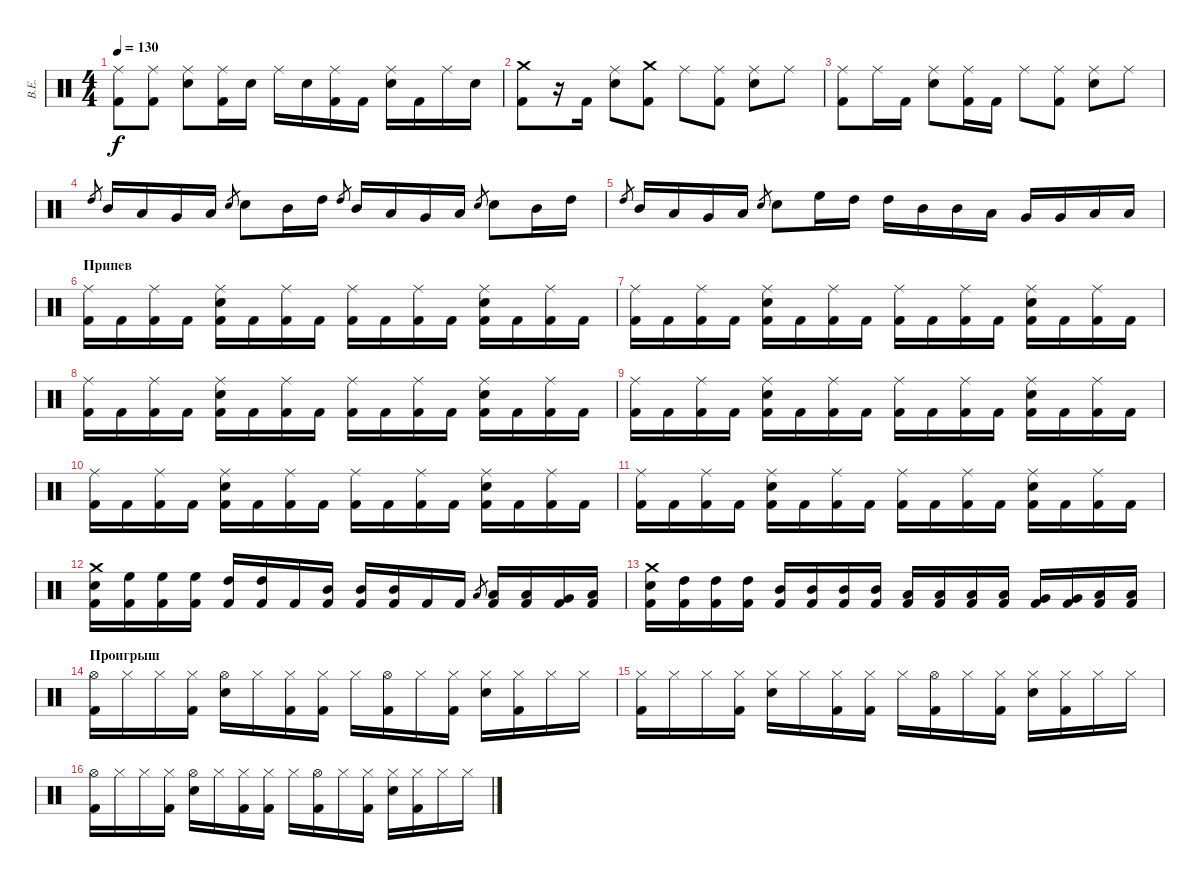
\track ("В.Е." "В.Е.") {instrument percussion}
\staff {score}
\articulation defaults
\ts (4 4)
\tempo 130
\clef neutral
\ks c
("Kick (hit) 2" "Ride (middle)").8{dy f} ("Kick (hit) 2" "Ride (middle)").8 ("Electric Snare (hit)" "Ride (middle)").8 ("Kick (hit) 2" "Ride (middle)").16 "Electric Snare (hit)".16 "Ride (middle)".16 "Electric Snare (hit)".16 ("Kick (hit) 2" "Ride (middle)").16 "Kick (hit) 2".16 ("Electric Snare (hit)" "Ride (middle)").16 "Kick (hit) 2".16 "Ride (middle)".16 "Electric Snare (hit)".16 |
("Kick (hit) 2" "Crash medium (hit)").8 r.16 "Kick (hit) 2".16 ("Electric Snare (hit)" "Ride (middle)").8 ("Kick (hit) 2" "Crash medium (hit)").8 "Ride (middle)".8 ("Kick (hit) 2" "Ride (middle)").8 ("Electric Snare (hit)" "Ride (middle)").8 "Ride (middle)".8 |
("Kick (hit) 2" "Ride (middle)").8 "Ride (middle)".16 "Kick (hit) 2".16 ("Electric Snare (hit)" "Ride (middle)").8 ("Kick (hit) 2" "Ride (middle)").16 "Kick (hit) 2".16 "Ride (middle)".8 ("Kick (hit) 2" "Ride (middle)").8 ("Electric Snare (hit)" "Ride (middle)").8 "Ride (middle)".8 |
"High Tom (hit)".8{gr} "Mid Tom (hit)".16 "Low Tom (hit)".16 "Very Low Tom (hit)".16 "Low Tom (hit)".16 "Electric Snare (hit)".8{gr} "Electric Snare (hit)".8 "Mid Tom (hit)".16 "High Tom (hit)".16 "High Tom (hit)".8{gr} "Mid Tom (hit)".16 "Low Tom (hit)".16 "Very Low Tom (hit)".16 "Low Tom (hit)".16 "Electric Snare (hit)".8{gr} "Electric Snare (hit)".8 "Mid Tom (hit)".16 "High Tom (hit)".16 |
"High Tom (hit)".8{gr} "Mid Tom (hit)".16 "Low Tom (hit)".16 "Very Low Tom (hit)".16 "Low Tom (hit)".16 "Electric Snare (hit)".8{gr} "Electric Snare (hit)".8 "High Floor Tom (hit)".16 "High Tom (hit)".16 "High Tom (hit)".16 "Mid Tom (hit)".16 "Mid Tom (hit)".16 "Low Tom (hit)".16 "Very Low Tom (hit)".16 "Very Low Tom (hit)".16 "Low Floor Tom (hit)".16 "Low Floor Tom (hit)".16 |
\section ("" "Припев")
("Ride (middle)" "Kick (hit) 2").16 "Kick (hit) 2".16 ("Ride (middle)" "Kick (hit) 2").16 "Kick (hit) 2".16 ("Ride (middle)" "Kick (hit) 2" "Electric Snare (hit)").16 "Kick (hit) 2".16 ("Ride (middle)" "Kick (hit) 2").16 "Kick (hit) 2".16 ("Ride (middle)" "Kick (hit) 2").16 "Kick (hit) 2".16 ("Ride (middle)" "Kick (hit) 2").16 "Kick (hit) 2".16 ("Ride (middle)" "Kick (hit) 2" "Electric Snare (hit)").16 "Kick (hit) 2".16 ("Ride (middle)" "Kick (hit) 2").16 "Kick (hit) 2".16 |
("Ride (middle)" "Kick (hit) 2").16 "Kick (hit) 2".16 ("Ride (middle)" "Kick (hit) 2").16 "Kick (hit) 2".16 ("Ride (middle)" "Kick (hit) 2" "Electric Snare (hit)").16 "Kick (hit) 2".16 ("Ride (middle)" "Kick (hit) 2").16 "Kick (hit) 2".16 ("Ride (middle)" "Kick (hit) 2").16 "Kick (hit) 2".16 ("Ride (middle)" "Kick (hit) 2").16 "Kick (hit) 2".16 ("Ride (middle)" "Kick (hit) 2" "Electric Snare (hit)").16 "Kick (hit) 2".16 ("Ride (middle)" "Kick (hit) 2").16 "Kick (hit) 2".16 |
("Ride (middle)" "Kick (hit) 2").16 "Kick (hit) 2".16 ("Ride (middle)" "Kick (hit) 2").16 "Kick (hit) 2".16 ("Ride (middle)" "Kick (hit) 2" "Electric Snare (hit)").16 "Kick (hit) 2".16 ("Ride (middle)" "Kick (hit) 2").16 "Kick (hit) 2".16 ("Ride (middle)" "Kick (hit) 2").16 "Kick (hit) 2".16 ("Ride (middle)" "Kick (hit) 2").16 "Kick (hit) 2".16 ("Ride (middle)" "Kick (hit) 2" "Electric Snare (hit)").16 "Kick (hit) 2".16 ("Ride (middle)" "Kick (hit) 2").16 "Kick (hit) 2".16 |
("Ride (middle)" "Kick (hit) 2").16 "Kick (hit) 2".16 ("Ride (middle)" "Kick (hit) 2").16 "Kick (hit) 2".16 ("Ride (middle)" "Kick (hit) 2" "Electric Snare (hit)").16 "Kick (hit) 2".16 ("Ride (middle)" "Kick (hit) 2").16 "Kick (hit) 2".16 ("Ride (middle)" "Kick (hit) 2").16 "Kick (hit) 2".16 ("Ride (middle)" "Kick (hit) 2").16 "Kick (hit) 2".16 ("Ride (middle)" "Kick (hit) 2" "Electric Snare (hit)").16 "Kick (hit) 2".16 ("Ride (middle)" "Kick (hit) 2").16 "Kick (hit) 2".16 |
("Ride (middle)" "Kick (hit) 2").16 "Kick (hit) 2".16 ("Ride (middle)" "Kick (hit) 2").16 "Kick (hit) 2".16 ("Ride (middle)" "Kick (hit) 2" "Electric Snare (hit)").16 "Kick (hit) 2".16 ("Ride (middle)" "Kick (hit) 2").16 "Kick (hit) 2".16 ("Ride (middle)" "Kick (hit) 2").16 "Kick (hit) 2".16 ("Ride (middle)" "Kick (hit) 2").16 "Kick (hit) 2".16 ("Ride (middle)" "Kick (hit) 2" "Electric Snare (hit)").16 "Kick (hit) 2".16 ("Ride (middle)" "Kick (hit) 2").16 "Kick (hit) 2".16 |
("Ride (middle)" "Kick (hit) 2").16 "Kick (hit) 2".16 ("Ride (middle)" "Kick (hit) 2").16 "Kick (hit) 2".16 ("Ride (middle)" "Kick (hit) 2" "Electric Snare (hit)").16 "Kick (hit) 2".16 ("Ride (middle)" "Kick (hit) 2").16 "Kick (hit) 2".16 ("Ride (middle)" "Kick (hit) 2").16 "Kick (hit) 2".16 ("Ride (middle)" "Kick (hit) 2").16 "Kick (hit) 2".16 ("Ride (middle)" "Kick (hit) 2" "Electric Snare (hit)").16 "Kick (hit) 2".16 ("Ride (middle)" "Kick (hit) 2").16 "Kick (hit) 2".16 |
("Kick (hit) 2" "Electric Snare (hit)" "Crash medium (hit)").16 ("Kick (hit) 2" "High Floor Tom (hit)").16 ("Kick (hit) 2" "High Floor Tom (hit)").16 ("Kick (hit) 2" "High Floor Tom (hit)").16 ("Kick (hit) 2" "High Tom (hit)").16 ("Kick (hit) 2" "High Tom (hit)").16 "Kick (hit) 2".16 ("Kick (hit) 2" "Mid Tom (hit)").16 ("Kick (hit) 2" "Mid Tom (hit)").16 ("Kick (hit) 2" "Mid Tom (hit)").16 "Kick (hit) 2".16 "Kick (hit) 2".16 "Low Tom (hit)".8{gr} ("Kick (hit) 2" "Low Tom (hit)").16 ("Kick (hit) 2" "Low Tom (hit)").16 ("Kick (hit) 2" "Very Low Tom (hit)").16 ("Kick (hit) 2" "Low Floor Tom (hit)").16 |
("Kick (hit) 2" "Electric Snare (hit)" "Crash medium (hit)").16 ("Kick (hit) 2" "High Tom (hit)").16 ("Kick (hit) 2" "High Tom (hit)").16 ("Kick (hit) 2" "High Tom (hit)").16 ("Kick (hit) 2" "Mid Tom (hit)").16 ("Kick (hit) 2" "Mid Tom (hit)").16 ("Kick (hit) 2" "Mid Tom (hit)").16 ("Kick (hit) 2" "Mid Tom (hit)").16 ("Kick (hit) 2" "Low Tom (hit)").16 ("Kick (hit) 2" "Low Tom (hit)").16 ("Kick (hit) 2" "Low Tom (hit)").16 ("Kick (hit) 2" "Low Tom (hit)").16 ("Kick (hit) 2" "Very Low Tom (hit)").16 ("Kick (hit) 2" "Very Low Tom (hit)").16 ("Kick (hit) 2" "Low Floor Tom (hit)").16 ("Kick (hit) 2" "Low Floor Tom (hit)").16 |
\section ("" "Проигрыш")
("Hi-Hat (open)" "Kick (hit) 2").16 "Hi-Hat (closed)".16 "Hi-Hat (closed)".16 ("Hi-Hat (closed)" "Kick (hit) 2").16 ("Hi-Hat (open)" "Electric Snare (hit)").16 "Hi-Hat (closed)".16 ("Hi-Hat (closed)" "Kick (hit) 2").16 ("Hi-Hat (closed)" "Kick (hit) 2").16 "Hi-Hat (closed)".16 ("Hi-Hat (open)" "Kick (hit) 2").16 "Hi-Hat (closed)".16 ("Hi-Hat (closed)" "Kick (hit) 2").16 ("Hi-Hat (closed)" "Electric Snare (hit)").16 ("Hi-Hat (closed)" "Kick (hit) 2").16 "Hi-Hat (closed)".16 "Hi-Hat (closed)".16 |
("Hi-Hat (closed)" "Kick (hit) 2").16 "Hi-Hat (closed)".16 "Hi-Hat (closed)".16 ("Hi-Hat (closed)" "Kick (hit) 2").16 ("Hi-Hat (closed)" "Electric Snare (hit)").16 "Hi-Hat (closed)".16 ("Hi-Hat (closed)" "Kick (hit) 2").16 ("Hi-Hat (closed)" "Kick (hit) 2").16 "Hi-Hat (closed)".16 ("Hi-Hat (open)" "Kick (hit) 2").16 "Hi-Hat (closed)".16 ("Hi-Hat (closed)" "Kick (hit) 2").16 ("Hi-Hat (closed)" "Electric Snare (hit)").16 ("Hi-Hat (closed)" "Kick (hit) 2").16 "Hi-Hat (closed)".16 "Hi-Hat (closed)".16 |
("Hi-Hat (open)" "Kick (hit) 2").16 "Hi-Hat (closed)".16 "Hi-Hat (closed)".16 ("Hi-Hat (closed)" "Kick (hit) 2").16 ("Hi-Hat (open)" "Electric Snare (hit)").16 "Hi-Hat (closed)".16 ("Hi-Hat (closed)" "Kick (hit) 2").16 ("Hi-Hat (closed)" "Kick (hit) 2").16 "Hi-Hat (closed)".16 ("Hi-Hat (open)" "Kick (hit) 2").16 "Hi-Hat (closed)".16 ("Hi-Hat (closed)" "Kick (hit) 2").16 ("Hi-Hat (closed)" "Electric Snare (hit)").16 ("Hi-Hat (closed)" "Kick (hit) 2").16 "Hi-Hat (closed)".16 "Hi-Hat (closed)".16
